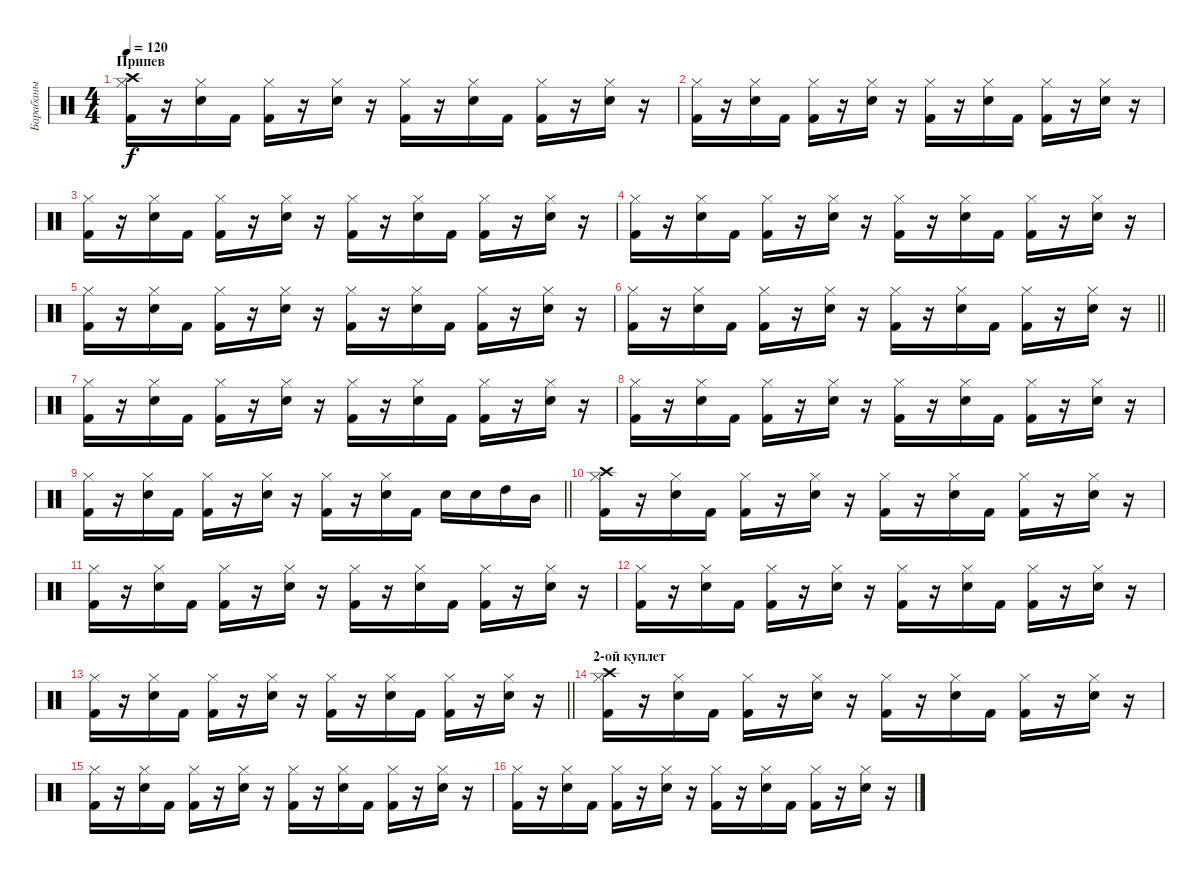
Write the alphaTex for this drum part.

\track ("Барабаны" "Барабаны") {instrument percussion}
\staff {score}
\articulation defaults
\ts (4 4)
\section ("" "Припев")
\tempo 120
\clef neutral
\ks c
("Hi-Hat (closed)" "Kick (hit) 2" "Crash high (hit)").16{dy f} r.16 ("Hi-Hat (closed)" "Electric Snare (hit)").16 "Kick (hit) 2".16 ("Hi-Hat (closed)" "Kick (hit) 2").16 r.16 ("Hi-Hat (closed)" "Electric Snare (hit)").16 r.16 ("Hi-Hat (closed)" "Kick (hit) 2").16 r.16 ("Hi-Hat (closed)" "Electric Snare (hit)").16 "Kick (hit) 2".16 ("Hi-Hat (closed)" "Kick (hit) 2").16 r.16 ("Hi-Hat (closed)" "Electric Snare (hit)").16 r.16 |
("Hi-Hat (closed)" "Kick (hit) 2").16 r.16 ("Hi-Hat (closed)" "Electric Snare (hit)").16 "Kick (hit) 2".16 ("Hi-Hat (closed)" "Kick (hit) 2").16 r.16 ("Hi-Hat (closed)" "Electric Snare (hit)").16 r.16 ("Hi-Hat (closed)" "Kick (hit) 2").16 r.16 ("Hi-Hat (closed)" "Electric Snare (hit)").16 "Kick (hit) 2".16 ("Hi-Hat (closed)" "Kick (hit) 2").16 r.16 ("Hi-Hat (closed)" "Electric Snare (hit)").16 r.16 |
("Hi-Hat (closed)" "Kick (hit) 2").16 r.16 ("Hi-Hat (closed)" "Electric Snare (hit)").16 "Kick (hit) 2".16 ("Hi-Hat (closed)" "Kick (hit) 2").16 r.16 ("Hi-Hat (closed)" "Electric Snare (hit)").16 r.16 ("Hi-Hat (closed)" "Kick (hit) 2").16 r.16 ("Hi-Hat (closed)" "Electric Snare (hit)").16 "Kick (hit) 2".16 ("Hi-Hat (closed)" "Kick (hit) 2").16 r.16 ("Hi-Hat (closed)" "Electric Snare (hit)").16 r.16 |
("Hi-Hat (closed)" "Kick (hit) 2").16 r.16 ("Hi-Hat (closed)" "Electric Snare (hit)").16 "Kick (hit) 2".16 ("Hi-Hat (closed)" "Kick (hit) 2").16 r.16 ("Hi-Hat (closed)" "Electric Snare (hit)").16 r.16 ("Hi-Hat (closed)" "Kick (hit) 2").16 r.16 ("Hi-Hat (closed)" "Electric Snare (hit)").16 "Kick (hit) 2".16 ("Hi-Hat (closed)" "Kick (hit) 2").16 r.16 ("Hi-Hat (closed)" "Electric Snare (hit)").16 r.16 |
("Hi-Hat (closed)" "Kick (hit) 2").16 r.16 ("Hi-Hat (closed)" "Electric Snare (hit)").16 "Kick (hit) 2".16 ("Hi-Hat (closed)" "Kick (hit) 2").16 r.16 ("Hi-Hat (closed)" "Electric Snare (hit)").16 r.16 ("Hi-Hat (closed)" "Kick (hit) 2").16 r.16 ("Hi-Hat (closed)" "Electric Snare (hit)").16 "Kick (hit) 2".16 ("Hi-Hat (closed)" "Kick (hit) 2").16 r.16 ("Hi-Hat (closed)" "Electric Snare (hit)").16 r.16 |
\barLineRight lightlight
("Hi-Hat (closed)" "Kick (hit) 2").16 r.16 ("Hi-Hat (closed)" "Electric Snare (hit)").16 "Kick (hit) 2".16 ("Hi-Hat (closed)" "Kick (hit) 2").16 r.16 ("Hi-Hat (closed)" "Electric Snare (hit)").16 r.16 ("Hi-Hat (closed)" "Kick (hit) 2").16 r.16 ("Hi-Hat (closed)" "Electric Snare (hit)").16 "Kick (hit) 2".16 ("Hi-Hat (closed)" "Kick (hit) 2").16 r.16 ("Hi-Hat (closed)" "Electric Snare (hit)").16 r.16 |
("Hi-Hat (closed)" "Kick (hit) 2").16 r.16 ("Hi-Hat (closed)" "Electric Snare (hit)").16 "Kick (hit) 2".16 ("Hi-Hat (closed)" "Kick (hit) 2").16 r.16 ("Hi-Hat (closed)" "Electric Snare (hit)").16 r.16 ("Hi-Hat (closed)" "Kick (hit) 2").16 r.16 ("Hi-Hat (closed)" "Electric Snare (hit)").16 "Kick (hit) 2".16 ("Hi-Hat (closed)" "Kick (hit) 2").16 r.16 ("Hi-Hat (closed)" "Electric Snare (hit)").16 r.16 |
("Hi-Hat (closed)" "Kick (hit) 2").16 r.16 ("Hi-Hat (closed)" "Electric Snare (hit)").16 "Kick (hit) 2".16 ("Hi-Hat (closed)" "Kick (hit) 2").16 r.16 ("Hi-Hat (closed)" "Electric Snare (hit)").16 r.16 ("Hi-Hat (closed)" "Kick (hit) 2").16 r.16 ("Hi-Hat (closed)" "Electric Snare (hit)").16 "Kick (hit) 2".16 ("Hi-Hat (closed)" "Kick (hit) 2").16 r.16 ("Hi-Hat (closed)" "Electric Snare (hit)").16 r.16 |
\barLineRight lightlight
("Hi-Hat (closed)" "Kick (hit) 2").16 r.16 ("Hi-Hat (closed)" "Electric Snare (hit)").16 "Kick (hit) 2".16 ("Hi-Hat (closed)" "Kick (hit) 2").16 r.16 ("Hi-Hat (closed)" "Electric Snare (hit)").16 r.16 ("Hi-Hat (closed)" "Kick (hit) 2").16 r.16 ("Hi-Hat (closed)" "Electric Snare (hit)").16 "Kick (hit) 2".16 "Electric Snare (hit)".16 "Electric Snare (hit)".16 "High Tom (hit)".16 "Mid Tom (hit)".16 |
("Hi-Hat (closed)" "Kick (hit) 2" "Crash high (hit)").16 r.16 ("Hi-Hat (closed)" "Electric Snare (hit)").16 "Kick (hit) 2".16 ("Hi-Hat (closed)" "Kick (hit) 2").16 r.16 ("Hi-Hat (closed)" "Electric Snare (hit)").16 r.16 ("Hi-Hat (closed)" "Kick (hit) 2").16 r.16 ("Hi-Hat (closed)" "Electric Snare (hit)").16 "Kick (hit) 2".16 ("Hi-Hat (closed)" "Kick (hit) 2").16 r.16 ("Hi-Hat (closed)" "Electric Snare (hit)").16 r.16 |
("Hi-Hat (closed)" "Kick (hit) 2").16 r.16 ("Hi-Hat (closed)" "Electric Snare (hit)").16 "Kick (hit) 2".16 ("Hi-Hat (closed)" "Kick (hit) 2").16 r.16 ("Hi-Hat (closed)" "Electric Snare (hit)").16 r.16 ("Hi-Hat (closed)" "Kick (hit) 2").16 r.16 ("Hi-Hat (closed)" "Electric Snare (hit)").16 "Kick (hit) 2".16 ("Hi-Hat (closed)" "Kick (hit) 2").16 r.16 ("Hi-Hat (closed)" "Electric Snare (hit)").16 r.16 |
("Hi-Hat (closed)" "Kick (hit) 2").16 r.16 ("Hi-Hat (closed)" "Electric Snare (hit)").16 "Kick (hit) 2".16 ("Hi-Hat (closed)" "Kick (hit) 2").16 r.16 ("Hi-Hat (closed)" "Electric Snare (hit)").16 r.16 ("Hi-Hat (closed)" "Kick (hit) 2").16 r.16 ("Hi-Hat (closed)" "Electric Snare (hit)").16 "Kick (hit) 2".16 ("Hi-Hat (closed)" "Kick (hit) 2").16 r.16 ("Hi-Hat (closed)" "Electric Snare (hit)").16 r.16 |
\barLineRight lightlight
("Hi-Hat (closed)" "Kick (hit) 2").16 r.16 ("Hi-Hat (closed)" "Electric Snare (hit)").16 "Kick (hit) 2".16 ("Hi-Hat (closed)" "Kick (hit) 2").16 r.16 ("Hi-Hat (closed)" "Electric Snare (hit)").16 r.16 ("Hi-Hat (closed)" "Kick (hit) 2").16 r.16 ("Hi-Hat (closed)" "Electric Snare (hit)").16 "Kick (hit) 2".16 ("Hi-Hat (closed)" "Kick (hit) 2").16 r.16 ("Hi-Hat (closed)" "Electric Snare (hit)").16 r.16 |
\section ("" "2-ой куплет")
("Hi-Hat (closed)" "Kick (hit) 2" "Crash high (hit)").16 r.16 ("Hi-Hat (closed)" "Electric Snare (hit)").16 "Kick (hit) 2".16 ("Hi-Hat (closed)" "Kick (hit) 2").16 r.16 ("Hi-Hat (closed)" "Electric Snare (hit)").16 r.16 ("Hi-Hat (closed)" "Kick (hit) 2").16 r.16 ("Hi-Hat (closed)" "Electric Snare (hit)").16 "Kick (hit) 2".16 ("Hi-Hat (closed)" "Kick (hit) 2").16 r.16 ("Hi-Hat (closed)" "Electric Snare (hit)").16 r.16 |
("Hi-Hat (closed)" "Kick (hit) 2").16 r.16 ("Hi-Hat (closed)" "Electric Snare (hit)").16 "Kick (hit) 2".16 ("Hi-Hat (closed)" "Kick (hit) 2").16 r.16 ("Hi-Hat (closed)" "Electric Snare (hit)").16 r.16 ("Hi-Hat (closed)" "Kick (hit) 2").16 r.16 ("Hi-Hat (closed)" "Electric Snare (hit)").16 "Kick (hit) 2".16 ("Hi-Hat (closed)" "Kick (hit) 2").16 r.16 ("Hi-Hat (closed)" "Electric Snare (hit)").16 r.16 |
("Hi-Hat (closed)" "Kick (hit) 2").16 r.16 ("Hi-Hat (closed)" "Electric Snare (hit)").16 "Kick (hit) 2".16 ("Hi-Hat (closed)" "Kick (hit) 2").16 r.16 ("Hi-Hat (closed)" "Electric Snare (hit)").16 r.16 ("Hi-Hat (closed)" "Kick (hit) 2").16 r.16 ("Hi-Hat (closed)" "Electric Snare (hit)").16 "Kick (hit) 2".16 ("Hi-Hat (closed)" "Kick (hit) 2").16 r.16 ("Hi-Hat (closed)" "Electric Snare (hit)").16 r.16
